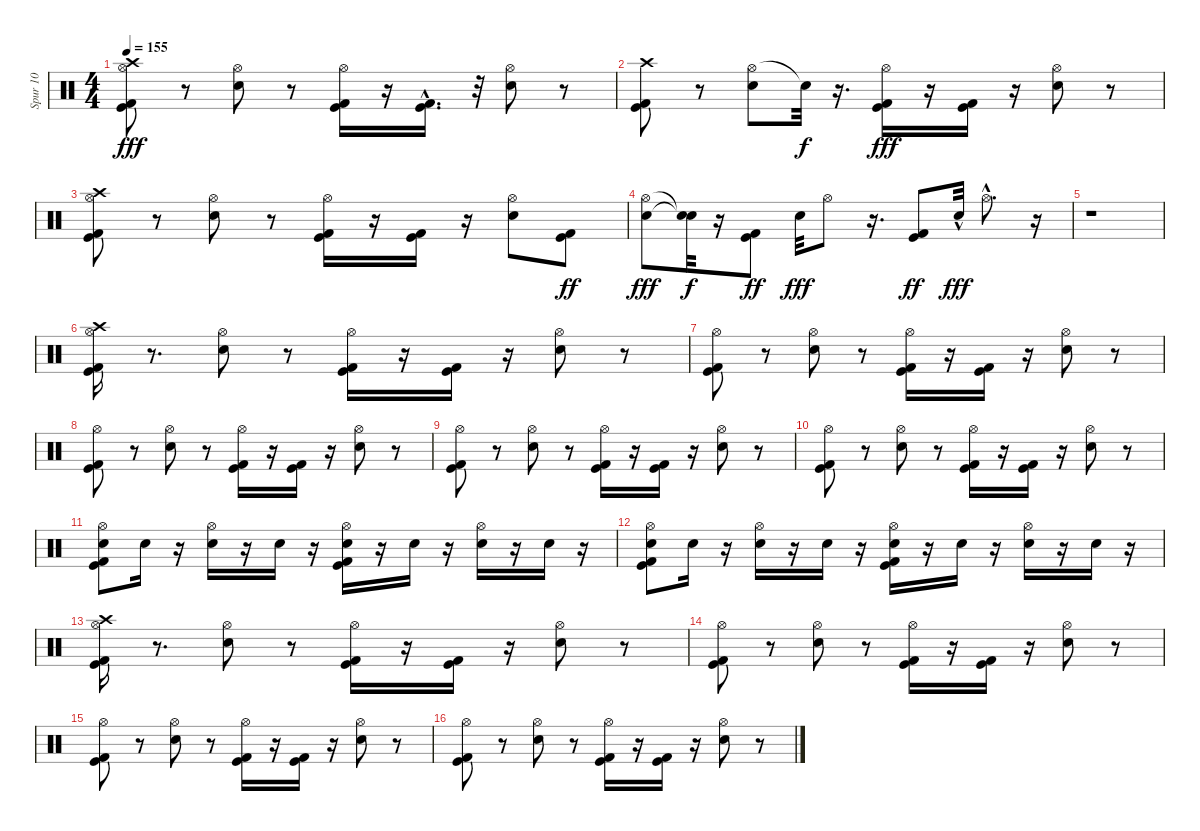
\track ("Spur 10" "Spur 10") {instrument percussion}
\staff {score}
\articulation defaults
\ts (4 4)
\tempo 155
\clef neutral
\ks c
("Crash high (hit)" "Hi-Hat (open)" "Kick (hit)" "Kick (hit) 2").8{dy fff} r.8 ("Hi-Hat (open)" "Electric Snare (hit)").8 r.8 ("Hi-Hat (open)" "Kick (hit)" "Kick (hit) 2").16 r.16 ("Kick (hit)"{hac} "Kick (hit) 2"{hac}).16{d} r.32 ("Hi-Hat (open)" "Electric Snare (hit)").8 r.8 |
("Kick (hit) 2" "Kick (hit)" "Crash high (hit)").8 r.8 ("Hi-Hat (open)" "Electric Snare (hit)").8 "Snare (hit)"{t}.32{dy f} r.16{d} ("Kick (hit)" "Hi-Hat (open)" "Kick (hit) 2").16{dy fff} r.16 ("Kick (hit)" "Kick (hit) 2").16 r.16 ("Hi-Hat (open)" "Electric Snare (hit)").8 r.8 |
("Crash high (hit)" "Kick (hit)" "Hi-Hat (open)" "Kick (hit) 2").8 r.8 ("Hi-Hat (open)" "Electric Snare (hit)").8 r.8 ("Kick (hit)" "Hi-Hat (open)" "Kick (hit) 2").16 r.16 ("Kick (hit)" "Kick (hit) 2").16 r.16 ("Hi-Hat (open)" "Electric Snare (hit)").8 ("Kick (hit)" "Kick (hit) 2").8{dy ff} |
("Electric Snare (hit)" "Hi-Hat (open)").8{dy fff} ("Snare (hit)"{t} "Snare (hit)"{t}).32{dy f} r.16 ("Kick (hit)" "Kick (hit) 2").8{dy ff} "Electric Snare (hit)".32{dy fff} "Hi-Hat (open)".8 r.16{d} ("Kick (hit) 2" "Kick (hit)").8{dy ff} "Electric Snare (hit)"{hac}.32{dy fff} "Hi-Hat (open)"{hac}.8{d} r.16 |
r.1 |
("Kick (hit)" "Crash high (hit)" "Hi-Hat (open)" "Kick (hit) 2").16 r.8{d} ("Hi-Hat (open)" "Electric Snare (hit)").8 r.8 ("Kick (hit)" "Hi-Hat (open)" "Kick (hit) 2").16 r.16 ("Kick (hit)" "Kick (hit) 2").16 r.16 ("Hi-Hat (open)" "Electric Snare (hit)").8 r.8 |
("Kick (hit)" "Hi-Hat (open)" "Kick (hit) 2").8 r.8 ("Hi-Hat (open)" "Electric Snare (hit)").8 r.8 ("Kick (hit)" "Hi-Hat (open)" "Kick (hit) 2").16 r.16 ("Kick (hit)" "Kick (hit) 2").16 r.16 ("Hi-Hat (open)" "Electric Snare (hit)").8 r.8 |
("Kick (hit)" "Hi-Hat (open)" "Kick (hit) 2").8 r.8 ("Hi-Hat (open)" "Electric Snare (hit)").8 r.8 ("Kick (hit)" "Hi-Hat (open)" "Kick (hit) 2").16 r.16 ("Kick (hit)" "Kick (hit) 2").16 r.16 ("Hi-Hat (open)" "Electric Snare (hit)").8 r.8 |
("Kick (hit)" "Hi-Hat (open)" "Kick (hit) 2").8 r.8 ("Hi-Hat (open)" "Electric Snare (hit)").8 r.8 ("Kick (hit)" "Hi-Hat (open)" "Kick (hit) 2").16 r.16 ("Kick (hit)" "Kick (hit) 2").16 r.16 ("Hi-Hat (open)" "Electric Snare (hit)").8 r.8 |
("Kick (hit)" "Hi-Hat (open)" "Kick (hit) 2").8 r.8 ("Hi-Hat (open)" "Electric Snare (hit)").8 r.8 ("Kick (hit)" "Hi-Hat (open)" "Kick (hit) 2").16 r.16 ("Kick (hit)" "Kick (hit) 2").16 r.16 ("Hi-Hat (open)" "Electric Snare (hit)").8 r.8 |
("Electric Snare (hit)" "Kick (hit)" "Hi-Hat (open)" "Kick (hit) 2").8 "Electric Snare (hit)".16 r.16 ("Electric Snare (hit)" "Hi-Hat (open)").16 r.16 "Electric Snare (hit)".16 r.16 ("Electric Snare (hit)" "Kick (hit)" "Hi-Hat (open)" "Kick (hit) 2").16 r.16 "Electric Snare (hit)".16 r.16 ("Electric Snare (hit)" "Hi-Hat (open)").16 r.16 "Electric Snare (hit)".16 r.16 |
("Electric Snare (hit)" "Kick (hit)" "Hi-Hat (open)" "Kick (hit) 2").8 "Electric Snare (hit)".16 r.16 ("Electric Snare (hit)" "Hi-Hat (open)").16 r.16 "Electric Snare (hit)".16 r.16 ("Electric Snare (hit)" "Kick (hit)" "Hi-Hat (open)" "Kick (hit) 2").16 r.16 "Electric Snare (hit)".16 r.16 ("Electric Snare (hit)" "Hi-Hat (open)").16 r.16 "Electric Snare (hit)".16 r.16 |
("Kick (hit)" "Crash high (hit)" "Hi-Hat (open)" "Kick (hit) 2").16 r.8{d} ("Hi-Hat (open)" "Electric Snare (hit)").8 r.8 ("Kick (hit)" "Hi-Hat (open)" "Kick (hit) 2").16 r.16 ("Kick (hit)" "Kick (hit) 2").16 r.16 ("Hi-Hat (open)" "Electric Snare (hit)").8 r.8 |
("Kick (hit)" "Hi-Hat (open)" "Kick (hit) 2").8 r.8 ("Hi-Hat (open)" "Electric Snare (hit)").8 r.8 ("Kick (hit)" "Hi-Hat (open)" "Kick (hit) 2").16 r.16 ("Kick (hit)" "Kick (hit) 2").16 r.16 ("Hi-Hat (open)" "Electric Snare (hit)").8 r.8 |
("Kick (hit)" "Hi-Hat (open)" "Kick (hit) 2").8 r.8 ("Hi-Hat (open)" "Electric Snare (hit)").8 r.8 ("Kick (hit)" "Hi-Hat (open)" "Kick (hit) 2").16 r.16 ("Kick (hit)" "Kick (hit) 2").16 r.16 ("Hi-Hat (open)" "Electric Snare (hit)").8 r.8 |
("Kick (hit)" "Hi-Hat (open)" "Kick (hit) 2").8 r.8 ("Hi-Hat (open)" "Electric Snare (hit)").8 r.8 ("Kick (hit)" "Hi-Hat (open)" "Kick (hit) 2").16 r.16 ("Kick (hit)" "Kick (hit) 2").16 r.16 ("Hi-Hat (open)" "Electric Snare (hit)").8 r.8
